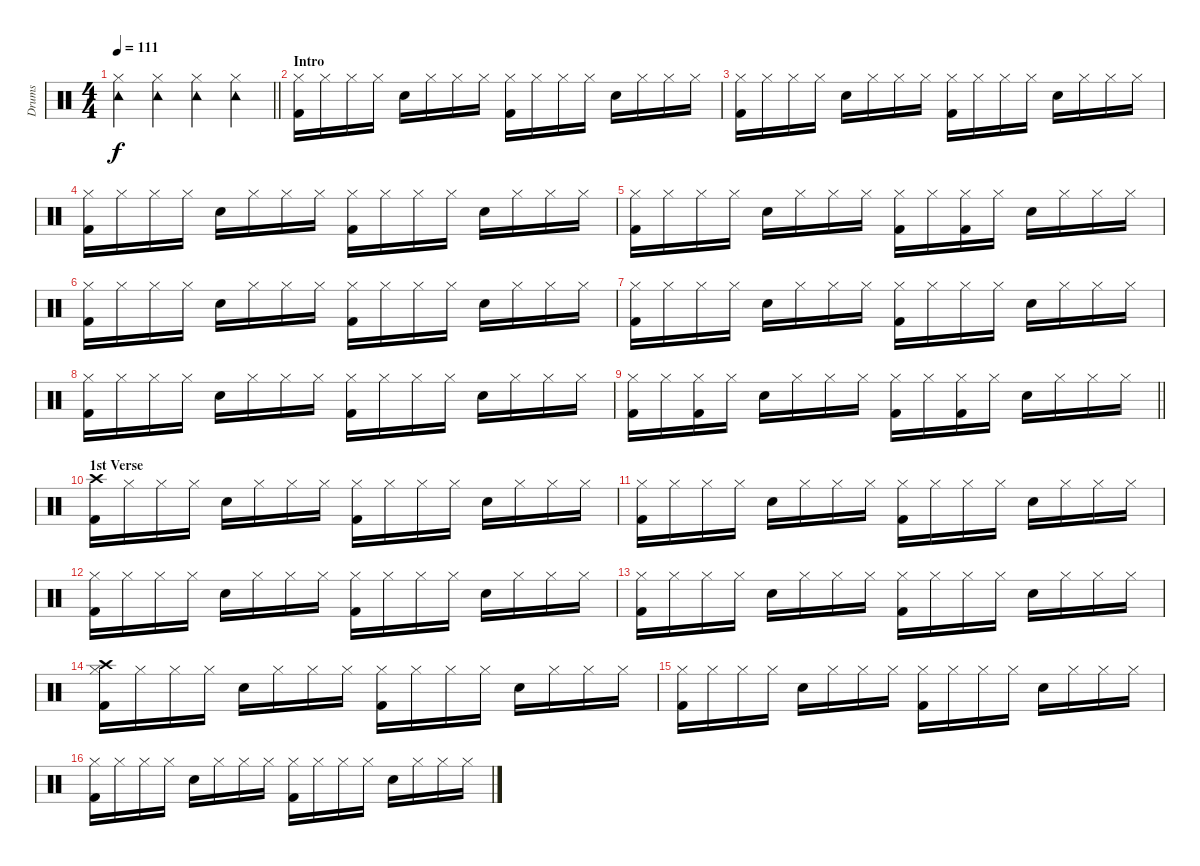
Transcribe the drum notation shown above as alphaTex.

\track ("Drums" "Drums") {instrument percussion}
\staff {score}
\articulation defaults
\ts (4 4)
\tempo 111
\clef neutral
\barLineRight lightlight
\ks c
("Tambourine (hit)" "Hi-Hat (closed)").4{dy f} ("Tambourine (hit)" "Hi-Hat (closed)").4 ("Tambourine (hit)" "Hi-Hat (closed)").4 ("Tambourine (hit)" "Hi-Hat (closed)").4 |
\section ("" "Intro")
("Hi-Hat (closed)" "Kick (hit) 2").16 "Hi-Hat (closed)".16 "Hi-Hat (closed)".16 "Hi-Hat (closed)".16 "Snare (hit) 2".16 "Hi-Hat (closed)".16 "Hi-Hat (closed)".16 "Hi-Hat (closed)".16 ("Hi-Hat (closed)" "Kick (hit) 2").16 "Hi-Hat (closed)".16 "Hi-Hat (closed)".16 "Hi-Hat (closed)".16 "Snare (hit) 2".16 "Hi-Hat (closed)".16 "Hi-Hat (closed)".16 "Hi-Hat (closed)".16 |
("Hi-Hat (closed)" "Kick (hit) 2").16 "Hi-Hat (closed)".16 "Hi-Hat (closed)".16 "Hi-Hat (closed)".16 "Snare (hit) 2".16 "Hi-Hat (closed)".16 "Hi-Hat (closed)".16 "Hi-Hat (closed)".16 ("Hi-Hat (closed)" "Kick (hit) 2").16 "Hi-Hat (closed)".16 "Hi-Hat (closed)".16 "Hi-Hat (closed)".16 "Snare (hit) 2".16 "Hi-Hat (closed)".16 "Hi-Hat (closed)".16 "Hi-Hat (closed)".16 |
("Hi-Hat (closed)" "Kick (hit) 2").16 "Hi-Hat (closed)".16 "Hi-Hat (closed)".16 "Hi-Hat (closed)".16 "Snare (hit) 2".16 "Hi-Hat (closed)".16 "Hi-Hat (closed)".16 "Hi-Hat (closed)".16 ("Hi-Hat (closed)" "Kick (hit) 2").16 "Hi-Hat (closed)".16 "Hi-Hat (closed)".16 "Hi-Hat (closed)".16 "Snare (hit) 2".16 "Hi-Hat (closed)".16 "Hi-Hat (closed)".16 "Hi-Hat (closed)".16 |
("Hi-Hat (closed)" "Kick (hit) 2").16 "Hi-Hat (closed)".16 "Hi-Hat (closed)".16 "Hi-Hat (closed)".16 "Snare (hit) 2".16 "Hi-Hat (closed)".16 "Hi-Hat (closed)".16 "Hi-Hat (closed)".16 ("Hi-Hat (closed)" "Kick (hit) 2").16 "Hi-Hat (closed)".16 ("Hi-Hat (closed)" "Kick (hit) 2").16 "Hi-Hat (closed)".16 "Snare (hit) 2".16 "Hi-Hat (closed)".16 "Hi-Hat (closed)".16 "Hi-Hat (closed)".16 |
("Hi-Hat (closed)" "Kick (hit) 2").16 "Hi-Hat (closed)".16 "Hi-Hat (closed)".16 "Hi-Hat (closed)".16 "Snare (hit) 2".16 "Hi-Hat (closed)".16 "Hi-Hat (closed)".16 "Hi-Hat (closed)".16 ("Hi-Hat (closed)" "Kick (hit) 2").16 "Hi-Hat (closed)".16 "Hi-Hat (closed)".16 "Hi-Hat (closed)".16 "Snare (hit) 2".16 "Hi-Hat (closed)".16 "Hi-Hat (closed)".16 "Hi-Hat (closed)".16 |
("Hi-Hat (closed)" "Kick (hit) 2").16 "Hi-Hat (closed)".16 "Hi-Hat (closed)".16 "Hi-Hat (closed)".16 "Snare (hit) 2".16 "Hi-Hat (closed)".16 "Hi-Hat (closed)".16 "Hi-Hat (closed)".16 ("Hi-Hat (closed)" "Kick (hit) 2").16 "Hi-Hat (closed)".16 "Hi-Hat (closed)".16 "Hi-Hat (closed)".16 "Snare (hit) 2".16 "Hi-Hat (closed)".16 "Hi-Hat (closed)".16 "Hi-Hat (closed)".16 |
("Hi-Hat (closed)" "Kick (hit) 2").16 "Hi-Hat (closed)".16 "Hi-Hat (closed)".16 "Hi-Hat (closed)".16 "Snare (hit) 2".16 "Hi-Hat (closed)".16 "Hi-Hat (closed)".16 "Hi-Hat (closed)".16 ("Hi-Hat (closed)" "Kick (hit) 2").16 "Hi-Hat (closed)".16 "Hi-Hat (closed)".16 "Hi-Hat (closed)".16 "Snare (hit) 2".16 "Hi-Hat (closed)".16 "Hi-Hat (closed)".16 "Hi-Hat (closed)".16 |
\barLineRight lightlight
("Hi-Hat (closed)" "Kick (hit) 2").16 "Hi-Hat (closed)".16 ("Hi-Hat (closed)" "Kick (hit) 2").16 "Hi-Hat (closed)".16 "Snare (hit) 2".16 "Hi-Hat (closed)".16 "Hi-Hat (closed)".16 "Hi-Hat (closed)".16 ("Hi-Hat (closed)" "Kick (hit) 2").16 "Hi-Hat (closed)".16 ("Hi-Hat (closed)" "Kick (hit) 2").16 "Hi-Hat (closed)".16 "Snare (hit) 2".16 "Hi-Hat (closed)".16 "Hi-Hat (closed)".16 "Hi-Hat (closed)".16 |
\section ("" "1st Verse")
("Crash high (hit)" "Kick (hit) 2").16 "Hi-Hat (closed)".16 "Hi-Hat (closed)".16 "Hi-Hat (closed)".16 "Snare (hit) 2".16 "Hi-Hat (closed)".16 "Hi-Hat (closed)".16 "Hi-Hat (closed)".16 ("Hi-Hat (closed)" "Kick (hit) 2").16 "Hi-Hat (closed)".16 "Hi-Hat (closed)".16 "Hi-Hat (closed)".16 "Snare (hit) 2".16 "Hi-Hat (closed)".16 "Hi-Hat (closed)".16 "Hi-Hat (closed)".16 |
("Hi-Hat (closed)" "Kick (hit) 2").16 "Hi-Hat (closed)".16 "Hi-Hat (closed)".16 "Hi-Hat (closed)".16 "Snare (hit) 2".16 "Hi-Hat (closed)".16 "Hi-Hat (closed)".16 "Hi-Hat (closed)".16 ("Hi-Hat (closed)" "Kick (hit) 2").16 "Hi-Hat (closed)".16 "Hi-Hat (closed)".16 "Hi-Hat (closed)".16 "Snare (hit) 2".16 "Hi-Hat (closed)".16 "Hi-Hat (closed)".16 "Hi-Hat (closed)".16 |
("Hi-Hat (closed)" "Kick (hit) 2").16 "Hi-Hat (closed)".16 "Hi-Hat (closed)".16 "Hi-Hat (closed)".16 "Snare (hit) 2".16 "Hi-Hat (closed)".16 "Hi-Hat (closed)".16 "Hi-Hat (closed)".16 ("Hi-Hat (closed)" "Kick (hit) 2").16 "Hi-Hat (closed)".16 "Hi-Hat (closed)".16 "Hi-Hat (closed)".16 "Snare (hit) 2".16 "Hi-Hat (closed)".16 "Hi-Hat (closed)".16 "Hi-Hat (closed)".16 |
("Hi-Hat (closed)" "Kick (hit) 2").16 "Hi-Hat (closed)".16 "Hi-Hat (closed)".16 "Hi-Hat (closed)".16 "Snare (hit) 2".16 "Hi-Hat (closed)".16 "Hi-Hat (closed)".16 "Hi-Hat (closed)".16 ("Hi-Hat (closed)" "Kick (hit) 2").16 "Hi-Hat (closed)".16 "Hi-Hat (closed)".16 "Hi-Hat (closed)".16 "Snare (hit) 2".16 "Hi-Hat (closed)".16 "Hi-Hat (closed)".16 "Hi-Hat (closed)".16 |
("Crash high (hit)" "Hi-Hat (closed)" "Kick (hit) 2").16 "Hi-Hat (closed)".16 "Hi-Hat (closed)".16 "Hi-Hat (closed)".16 "Snare (hit) 2".16 "Hi-Hat (closed)".16 "Hi-Hat (closed)".16 "Hi-Hat (closed)".16 ("Hi-Hat (closed)" "Kick (hit) 2").16 "Hi-Hat (closed)".16 "Hi-Hat (closed)".16 "Hi-Hat (closed)".16 "Snare (hit) 2".16 "Hi-Hat (closed)".16 "Hi-Hat (closed)".16 "Hi-Hat (closed)".16 |
("Hi-Hat (closed)" "Kick (hit) 2").16 "Hi-Hat (closed)".16 "Hi-Hat (closed)".16 "Hi-Hat (closed)".16 "Snare (hit) 2".16 "Hi-Hat (closed)".16 "Hi-Hat (closed)".16 "Hi-Hat (closed)".16 ("Hi-Hat (closed)" "Kick (hit) 2").16 "Hi-Hat (closed)".16 "Hi-Hat (closed)".16 "Hi-Hat (closed)".16 "Snare (hit) 2".16 "Hi-Hat (closed)".16 "Hi-Hat (closed)".16 "Hi-Hat (closed)".16 |
("Hi-Hat (closed)" "Kick (hit) 2").16 "Hi-Hat (closed)".16 "Hi-Hat (closed)".16 "Hi-Hat (closed)".16 "Snare (hit) 2".16 "Hi-Hat (closed)".16 "Hi-Hat (closed)".16 "Hi-Hat (closed)".16 ("Hi-Hat (closed)" "Kick (hit) 2").16 "Hi-Hat (closed)".16 "Hi-Hat (closed)".16 "Hi-Hat (closed)".16 "Snare (hit) 2".16 "Hi-Hat (closed)".16 "Hi-Hat (closed)".16 "Hi-Hat (closed)".16
